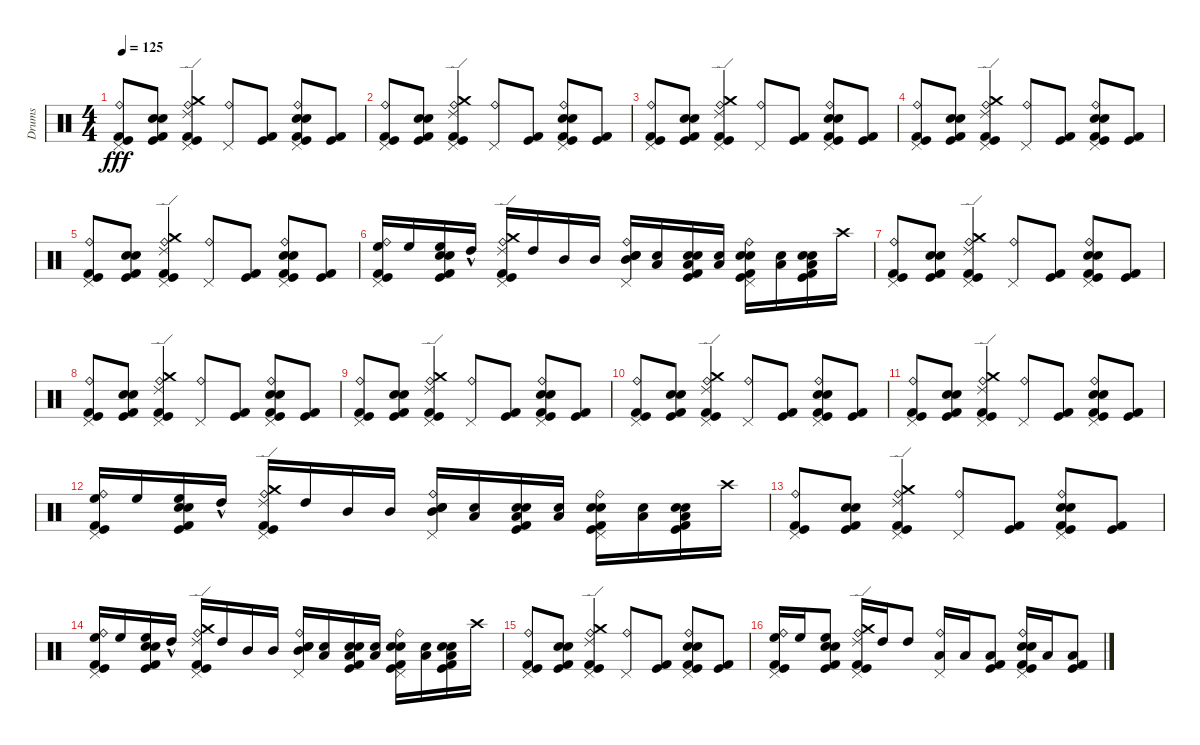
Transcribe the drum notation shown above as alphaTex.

\track ("Drums" "Drums") {instrument percussion}
\staff {score}
\articulation defaults
\ts (4 4)
\tempo 125
\clef neutral
\ks c
("Pedal Hi-Hat (hit)" "Kick (hit) 2" "Kick (hit)" "Ride (bell)").8{dy fff} ("Electric Snare (hit)" "Snare (hit) 2" "Kick (hit)" "Kick (hit) 2").8 ("Kick (hit) 2" "Kick (hit)" "Ride (bell)" "Crash medium (hit)" "Ride (edge) 2" "Pedal Hi-Hat (hit)").4 ("Pedal Hi-Hat (hit)" "Ride (bell)").8 ("Kick (hit) 2" "Kick (hit)").8 ("Pedal Hi-Hat (hit)" "Electric Snare (hit)" "Snare (hit) 2" "Kick (hit) 2" "Kick (hit)" "Ride (bell)").8 ("Kick (hit) 2" "Kick (hit)").8 |
("Pedal Hi-Hat (hit)" "Kick (hit) 2" "Kick (hit)" "Ride (bell)").8 ("Electric Snare (hit)" "Snare (hit) 2" "Kick (hit)" "Kick (hit) 2").8 ("Kick (hit) 2" "Kick (hit)" "Ride (bell)" "Crash medium (hit)" "Ride (edge) 2" "Pedal Hi-Hat (hit)").4 ("Pedal Hi-Hat (hit)" "Ride (bell)").8 ("Kick (hit) 2" "Kick (hit)").8 ("Pedal Hi-Hat (hit)" "Electric Snare (hit)" "Snare (hit) 2" "Kick (hit) 2" "Kick (hit)" "Ride (bell)").8 ("Kick (hit) 2" "Kick (hit)").8 |
("Pedal Hi-Hat (hit)" "Kick (hit) 2" "Kick (hit)" "Ride (bell)").8 ("Electric Snare (hit)" "Snare (hit) 2" "Kick (hit)" "Kick (hit) 2").8 ("Kick (hit) 2" "Kick (hit)" "Ride (bell)" "Crash medium (hit)" "Ride (edge) 2" "Pedal Hi-Hat (hit)").4 ("Pedal Hi-Hat (hit)" "Ride (bell)").8 ("Kick (hit) 2" "Kick (hit)").8 ("Pedal Hi-Hat (hit)" "Electric Snare (hit)" "Snare (hit) 2" "Kick (hit) 2" "Kick (hit)" "Ride (bell)").8 ("Kick (hit) 2" "Kick (hit)").8 |
("Pedal Hi-Hat (hit)" "Kick (hit) 2" "Kick (hit)" "Ride (bell)").8 ("Electric Snare (hit)" "Snare (hit) 2" "Kick (hit)" "Kick (hit) 2").8 ("Kick (hit) 2" "Kick (hit)" "Ride (bell)" "Crash medium (hit)" "Ride (edge) 2" "Pedal Hi-Hat (hit)").4 ("Pedal Hi-Hat (hit)" "Ride (bell)").8 ("Kick (hit) 2" "Kick (hit)").8 ("Pedal Hi-Hat (hit)" "Electric Snare (hit)" "Snare (hit) 2" "Kick (hit) 2" "Kick (hit)" "Ride (bell)").8 ("Kick (hit) 2" "Kick (hit)").8 |
("Pedal Hi-Hat (hit)" "Kick (hit) 2" "Kick (hit)" "Ride (bell)").8 ("Electric Snare (hit)" "Snare (hit) 2" "Kick (hit)" "Kick (hit) 2").8 ("Kick (hit) 2" "Kick (hit)" "Ride (bell)" "Crash medium (hit)" "Ride (edge) 2" "Pedal Hi-Hat (hit)").4 ("Pedal Hi-Hat (hit)" "Ride (bell)").8 ("Kick (hit) 2" "Kick (hit)").8 ("Pedal Hi-Hat (hit)" "Electric Snare (hit)" "Snare (hit) 2" "Kick (hit) 2" "Kick (hit)" "Ride (bell)").8 ("Kick (hit) 2" "Kick (hit)").8 |
("Pedal Hi-Hat (hit)" "Kick (hit) 2" "Kick (hit)" "Ride (bell)" "High Floor Tom (hit)").16 "High Floor Tom (hit)".16 ("Electric Snare (hit)" "Snare (hit) 2" "Kick (hit)" "Kick (hit) 2" "High Floor Tom (hit)").16 "High Tom (hit)"{hac}.16 ("Pedal Hi-Hat (hit)" "Kick (hit) 2" "Kick (hit)" "Ride (bell)" "Crash medium (hit)" "Ride (edge) 2").16 "High Tom (hit)".16 "Mid Tom (hit)".16 "Mid Tom (hit)".16 ("Pedal Hi-Hat (hit)" "Ride (bell)" "Mid Tom (hit)" "Electric Snare (hit)" "Snare (hit) 2").16 ("Low Tom (hit)" "Electric Snare (hit)").16 ("Kick (hit) 2" "Kick (hit)" "Low Tom (hit)" "Electric Snare (hit)" "Snare (hit) 2").16 ("Low Tom (hit)" "Electric Snare (hit)").16 ("Pedal Hi-Hat (hit)" "Electric Snare (hit)" "Snare (hit) 2" "Kick (hit) 2" "Kick (hit)" "Ride (bell)").16 ("Low Floor Tom (hit)" "Electric Snare (hit)").16 ("Kick (hit) 2" "Kick (hit)" "Low Floor Tom (hit)" "Electric Snare (hit)" "Snare (hit) 2").16 "Crash high (hit)".16 |
("Pedal Hi-Hat (hit)" "Kick (hit) 2" "Kick (hit)" "Ride (bell)").8 ("Electric Snare (hit)" "Snare (hit) 2" "Kick (hit)" "Kick (hit) 2").8 ("Pedal Hi-Hat (hit)" "Kick (hit) 2" "Kick (hit)" "Ride (bell)" "Crash medium (hit)" "Ride (edge) 2").4 ("Pedal Hi-Hat (hit)" "Ride (bell)").8 ("Kick (hit) 2" "Kick (hit)").8 ("Pedal Hi-Hat (hit)" "Electric Snare (hit)" "Snare (hit) 2" "Kick (hit) 2" "Kick (hit)" "Ride (bell)").8 ("Kick (hit) 2" "Kick (hit)").8 |
("Pedal Hi-Hat (hit)" "Kick (hit) 2" "Kick (hit)" "Ride (bell)").8 ("Electric Snare (hit)" "Snare (hit) 2" "Kick (hit)" "Kick (hit) 2").8 ("Kick (hit) 2" "Kick (hit)" "Ride (bell)" "Crash medium (hit)" "Ride (edge) 2" "Pedal Hi-Hat (hit)").4 ("Pedal Hi-Hat (hit)" "Ride (bell)").8 ("Kick (hit) 2" "Kick (hit)").8 ("Pedal Hi-Hat (hit)" "Electric Snare (hit)" "Snare (hit) 2" "Kick (hit) 2" "Kick (hit)" "Ride (bell)").8 ("Kick (hit) 2" "Kick (hit)").8 |
("Pedal Hi-Hat (hit)" "Kick (hit) 2" "Kick (hit)" "Ride (bell)").8 ("Electric Snare (hit)" "Snare (hit) 2" "Kick (hit)" "Kick (hit) 2").8 ("Kick (hit) 2" "Kick (hit)" "Ride (bell)" "Crash medium (hit)" "Ride (edge) 2" "Pedal Hi-Hat (hit)").4 ("Pedal Hi-Hat (hit)" "Ride (bell)").8 ("Kick (hit) 2" "Kick (hit)").8 ("Pedal Hi-Hat (hit)" "Electric Snare (hit)" "Snare (hit) 2" "Kick (hit) 2" "Kick (hit)" "Ride (bell)").8 ("Kick (hit) 2" "Kick (hit)").8 |
("Pedal Hi-Hat (hit)" "Kick (hit) 2" "Kick (hit)" "Ride (bell)").8 ("Electric Snare (hit)" "Snare (hit) 2" "Kick (hit)" "Kick (hit) 2").8 ("Kick (hit) 2" "Kick (hit)" "Ride (bell)" "Crash medium (hit)" "Ride (edge) 2" "Pedal Hi-Hat (hit)").4 ("Pedal Hi-Hat (hit)" "Ride (bell)").8 ("Kick (hit) 2" "Kick (hit)").8 ("Pedal Hi-Hat (hit)" "Electric Snare (hit)" "Snare (hit) 2" "Kick (hit) 2" "Kick (hit)" "Ride (bell)").8 ("Kick (hit) 2" "Kick (hit)").8 |
("Pedal Hi-Hat (hit)" "Kick (hit) 2" "Kick (hit)" "Ride (bell)").8 ("Electric Snare (hit)" "Snare (hit) 2" "Kick (hit)" "Kick (hit) 2").8 ("Kick (hit) 2" "Kick (hit)" "Ride (bell)" "Crash medium (hit)" "Ride (edge) 2" "Pedal Hi-Hat (hit)").4 ("Pedal Hi-Hat (hit)" "Ride (bell)").8 ("Kick (hit) 2" "Kick (hit)").8 ("Pedal Hi-Hat (hit)" "Electric Snare (hit)" "Snare (hit) 2" "Kick (hit) 2" "Kick (hit)" "Ride (bell)").8 ("Kick (hit) 2" "Kick (hit)").8 |
("Pedal Hi-Hat (hit)" "Kick (hit) 2" "Kick (hit)" "Ride (bell)" "High Floor Tom (hit)").16 "High Floor Tom (hit)".16 ("Electric Snare (hit)" "Snare (hit) 2" "Kick (hit)" "Kick (hit) 2" "High Floor Tom (hit)").16 "High Tom (hit)"{hac}.16 ("Pedal Hi-Hat (hit)" "Kick (hit) 2" "Kick (hit)" "Ride (bell)" "Crash medium (hit)" "Ride (edge) 2").16 "High Tom (hit)".16 "Mid Tom (hit)".16 "Mid Tom (hit)".16 ("Pedal Hi-Hat (hit)" "Ride (bell)" "Mid Tom (hit)" "Electric Snare (hit)" "Snare (hit) 2").16 ("Low Tom (hit)" "Electric Snare (hit)").16 ("Kick (hit) 2" "Kick (hit)" "Low Tom (hit)" "Electric Snare (hit)" "Snare (hit) 2").16 ("Low Tom (hit)" "Electric Snare (hit)").16 ("Pedal Hi-Hat (hit)" "Electric Snare (hit)" "Snare (hit) 2" "Kick (hit) 2" "Kick (hit)" "Ride (bell)").16 ("Low Floor Tom (hit)" "Electric Snare (hit)").16 ("Kick (hit) 2" "Kick (hit)" "Low Floor Tom (hit)" "Electric Snare (hit)" "Snare (hit) 2").16 "Crash high (hit)".16 |
("Pedal Hi-Hat (hit)" "Kick (hit) 2" "Kick (hit)" "Ride (bell)").8 ("Electric Snare (hit)" "Snare (hit) 2" "Kick (hit)" "Kick (hit) 2").8 ("Kick (hit) 2" "Kick (hit)" "Ride (bell)" "Crash medium (hit)" "Ride (edge) 2" "Pedal Hi-Hat (hit)").4 ("Ride (bell)" "Pedal Hi-Hat (hit)").8 ("Kick (hit) 2" "Kick (hit)").8 ("Pedal Hi-Hat (hit)" "Electric Snare (hit)" "Snare (hit) 2" "Kick (hit) 2" "Kick (hit)" "Ride (bell)").8 ("Kick (hit) 2" "Kick (hit)").8 |
("Pedal Hi-Hat (hit)" "Kick (hit) 2" "Kick (hit)" "Ride (bell)" "High Floor Tom (hit)").16 "High Floor Tom (hit)".16 ("Electric Snare (hit)" "Snare (hit) 2" "Kick (hit)" "Kick (hit) 2" "High Floor Tom (hit)").16 "High Tom (hit)"{hac}.16 ("Pedal Hi-Hat (hit)" "Kick (hit) 2" "Kick (hit)" "Ride (bell)" "Crash medium (hit)" "Ride (edge) 2").16 "High Tom (hit)".16 "Mid Tom (hit)".16 "Mid Tom (hit)".16 ("Pedal Hi-Hat (hit)" "Ride (bell)" "Mid Tom (hit)" "Electric Snare (hit)" "Snare (hit) 2").16 ("Low Tom (hit)" "Electric Snare (hit)").16 ("Kick (hit) 2" "Kick (hit)" "Low Tom (hit)" "Electric Snare (hit)" "Snare (hit) 2").16 ("Low Tom (hit)" "Electric Snare (hit)").16 ("Pedal Hi-Hat (hit)" "Electric Snare (hit)" "Snare (hit) 2" "Kick (hit) 2" "Kick (hit)" "Ride (bell)").16 ("Low Floor Tom (hit)" "Electric Snare (hit)").16 ("Kick (hit) 2" "Kick (hit)" "Low Floor Tom (hit)" "Electric Snare (hit)" "Snare (hit) 2").16 "Crash high (hit)".16 |
("Pedal Hi-Hat (hit)" "Kick (hit) 2" "Kick (hit)" "Ride (bell)").8 ("Electric Snare (hit)" "Snare (hit) 2" "Kick (hit)" "Kick (hit) 2").8 ("Pedal Hi-Hat (hit)" "Kick (hit) 2" "Kick (hit)" "Ride (bell)" "Crash medium (hit)" "Ride (edge) 2").4 ("Pedal Hi-Hat (hit)" "Ride (bell)").8 ("Kick (hit) 2" "Kick (hit)").8 ("Pedal Hi-Hat (hit)" "Electric Snare (hit)" "Snare (hit) 2" "Kick (hit) 2" "Kick (hit)" "Ride (bell)").8 ("Kick (hit) 2" "Kick (hit)").8 |
("Pedal Hi-Hat (hit)" "Kick (hit) 2" "Kick (hit)" "Ride (bell)" "High Floor Tom (hit)").16 "High Floor Tom (hit)".16 ("Electric Snare (hit)" "Snare (hit) 2" "Kick (hit)" "Kick (hit) 2" "High Floor Tom (hit)").8 ("Pedal Hi-Hat (hit)" "Kick (hit) 2" "Kick (hit)" "Ride (bell)" "Crash medium (hit)" "Ride (edge) 2").16 "High Tom (hit)".16 "High Tom (hit)".8 ("Pedal Hi-Hat (hit)" "Ride (bell)" "Low Tom (hit)").16 "Low Tom (hit)".16 ("Kick (hit) 2" "Kick (hit)" "Low Tom (hit)").8 ("Pedal Hi-Hat (hit)" "Electric Snare (hit)" "Snare (hit) 2" "Kick (hit) 2" "Kick (hit)" "Ride (bell)").16 "Low Floor Tom (hit)".16 ("Kick (hit) 2" "Kick (hit)" "Low Floor Tom (hit)").8
